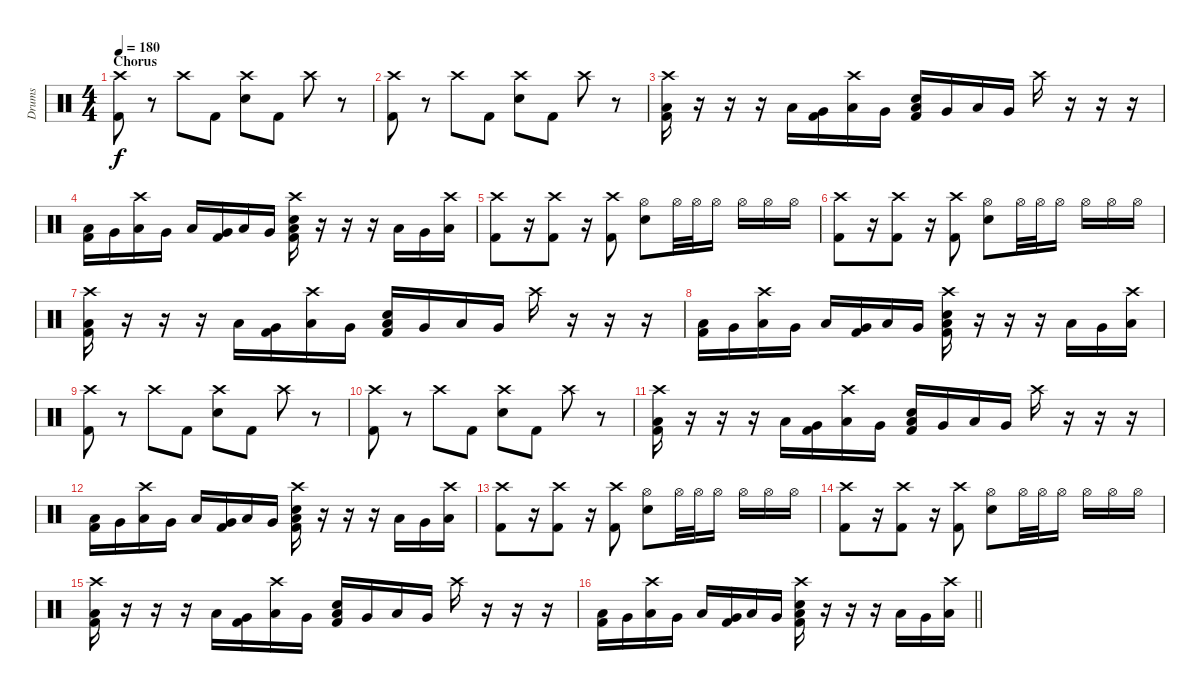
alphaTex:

\track ("Drums" "Drums") {instrument percussion}
\staff {score}
\articulation defaults
\ts (4 4)
\section ("" "Chorus")
\tempo 180
\clef neutral
\ks c
("Crash high (hit)" "Kick (hit) 2").8{dy f} r.8 "Crash high (hit)".8 "Kick (hit) 2".8 ("Crash high (hit)" "Electric Snare (hit)").8 "Kick (hit) 2".8 "Crash high (hit)".8 r.8 |
("Crash high (hit)" "Kick (hit) 2").8 r.8 "Crash high (hit)".8 "Kick (hit) 2".8 ("Crash high (hit)" "Electric Snare (hit)").8 "Kick (hit) 2".8 "Crash high (hit)".8 r.8 |
("Crash high (hit)" "Low Floor Tom (hit)" "Kick (hit) 2").16 r.16 r.16 r.16 "Low Floor Tom (hit)".16 ("Very Low Tom (hit)" "Kick (hit) 2").16 ("Crash high (hit)" "Low Floor Tom (hit)").16 "Very Low Tom (hit)".16 ("Electric Snare (hit)" "Low Floor Tom (hit)" "Kick (hit) 2").16 "Very Low Tom (hit)".16 "Low Floor Tom (hit)".16 "Very Low Tom (hit)".16 "Crash high (hit)".16 r.16 r.16 r.16 |
("Low Floor Tom (hit)" "Kick (hit) 2").16 "Very Low Tom (hit)".16 ("Crash high (hit)" "Low Floor Tom (hit)").16 "Very Low Tom (hit)".16 "Low Floor Tom (hit)".16 ("Very Low Tom (hit)" "Kick (hit) 2").16 "Low Floor Tom (hit)".16 "Very Low Tom (hit)".16 ("Crash high (hit)" "Electric Snare (hit)" "Low Floor Tom (hit)" "Kick (hit) 2").16 r.16 r.16 r.16 "Low Floor Tom (hit)".16 "Very Low Tom (hit)".16 ("Crash high (hit)" "Low Floor Tom (hit)").16 |
("Crash high (hit)" "Kick (hit) 2").8 r.16 ("Crash high (hit)" "Kick (hit) 2").8 r.16 ("Crash high (hit)" "Kick (hit) 2").8 ("Hi-Hat (open)" "Electric Snare (hit)").8 "Hi-Hat (open)".32 "Hi-Hat (open)".32 "Hi-Hat (open)".16 "Hi-Hat (open)".16 "Hi-Hat (open)".16 "Hi-Hat (open)".16 |
("Crash high (hit)" "Kick (hit) 2").8 r.16 ("Crash high (hit)" "Kick (hit) 2").8 r.16 ("Crash high (hit)" "Kick (hit) 2").8 ("Hi-Hat (open)" "Electric Snare (hit)").8 "Hi-Hat (open)".32 "Hi-Hat (open)".32 "Hi-Hat (open)".16 "Hi-Hat (open)".16 "Hi-Hat (open)".16 "Hi-Hat (open)".16 |
("Crash high (hit)" "Low Floor Tom (hit)" "Kick (hit) 2").16 r.16 r.16 r.16 "Low Floor Tom (hit)".16 ("Very Low Tom (hit)" "Kick (hit) 2").16 ("Crash high (hit)" "Low Floor Tom (hit)").16 "Very Low Tom (hit)".16 ("Electric Snare (hit)" "Low Floor Tom (hit)" "Kick (hit) 2").16 "Very Low Tom (hit)".16 "Low Floor Tom (hit)".16 "Very Low Tom (hit)".16 "Crash high (hit)".16 r.16 r.16 r.16 |
("Low Floor Tom (hit)" "Kick (hit) 2").16 "Very Low Tom (hit)".16 ("Crash high (hit)" "Low Floor Tom (hit)").16 "Very Low Tom (hit)".16 "Low Floor Tom (hit)".16 ("Very Low Tom (hit)" "Kick (hit) 2").16 "Low Floor Tom (hit)".16 "Very Low Tom (hit)".16 ("Crash high (hit)" "Electric Snare (hit)" "Low Floor Tom (hit)" "Kick (hit) 2").16 r.16 r.16 r.16 "Low Floor Tom (hit)".16 "Very Low Tom (hit)".16 ("Crash high (hit)" "Low Floor Tom (hit)").16 |
("Crash high (hit)" "Kick (hit) 2").8 r.8 "Crash high (hit)".8 "Kick (hit) 2".8 ("Crash high (hit)" "Electric Snare (hit)").8 "Kick (hit) 2".8 "Crash high (hit)".8 r.8 |
("Crash high (hit)" "Kick (hit) 2").8 r.8 "Crash high (hit)".8 "Kick (hit) 2".8 ("Crash high (hit)" "Electric Snare (hit)").8 "Kick (hit) 2".8 "Crash high (hit)".8 r.8 |
("Crash high (hit)" "Low Floor Tom (hit)" "Kick (hit) 2").16 r.16 r.16 r.16 "Low Floor Tom (hit)".16 ("Very Low Tom (hit)" "Kick (hit) 2").16 ("Crash high (hit)" "Low Floor Tom (hit)").16 "Very Low Tom (hit)".16 ("Electric Snare (hit)" "Low Floor Tom (hit)" "Kick (hit) 2").16 "Very Low Tom (hit)".16 "Low Floor Tom (hit)".16 "Very Low Tom (hit)".16 "Crash high (hit)".16 r.16 r.16 r.16 |
("Low Floor Tom (hit)" "Kick (hit) 2").16 "Very Low Tom (hit)".16 ("Crash high (hit)" "Low Floor Tom (hit)").16 "Very Low Tom (hit)".16 "Low Floor Tom (hit)".16 ("Very Low Tom (hit)" "Kick (hit) 2").16 "Low Floor Tom (hit)".16 "Very Low Tom (hit)".16 ("Crash high (hit)" "Electric Snare (hit)" "Low Floor Tom (hit)" "Kick (hit) 2").16 r.16 r.16 r.16 "Low Floor Tom (hit)".16 "Very Low Tom (hit)".16 ("Crash high (hit)" "Low Floor Tom (hit)").16 |
("Crash high (hit)" "Kick (hit) 2").8 r.16 ("Crash high (hit)" "Kick (hit) 2").8 r.16 ("Crash high (hit)" "Kick (hit) 2").8 ("Hi-Hat (open)" "Electric Snare (hit)").8 "Hi-Hat (open)".32 "Hi-Hat (open)".32 "Hi-Hat (open)".16 "Hi-Hat (open)".16 "Hi-Hat (open)".16 "Hi-Hat (open)".16 |
("Crash high (hit)" "Kick (hit) 2").8 r.16 ("Crash high (hit)" "Kick (hit) 2").8 r.16 ("Crash high (hit)" "Kick (hit) 2").8 ("Hi-Hat (open)" "Electric Snare (hit)").8 "Hi-Hat (open)".32 "Hi-Hat (open)".32 "Hi-Hat (open)".16 "Hi-Hat (open)".16 "Hi-Hat (open)".16 "Hi-Hat (open)".16 |
("Crash high (hit)" "Low Floor Tom (hit)" "Kick (hit) 2").16 r.16 r.16 r.16 "Low Floor Tom (hit)".16 ("Very Low Tom (hit)" "Kick (hit) 2").16 ("Crash high (hit)" "Low Floor Tom (hit)").16 "Very Low Tom (hit)".16 ("Electric Snare (hit)" "Low Floor Tom (hit)" "Kick (hit) 2").16 "Very Low Tom (hit)".16 "Low Floor Tom (hit)".16 "Very Low Tom (hit)".16 "Crash high (hit)".16 r.16 r.16 r.16 |
\barLineRight lightlight
("Low Floor Tom (hit)" "Kick (hit) 2").16 "Very Low Tom (hit)".16 ("Crash high (hit)" "Low Floor Tom (hit)").16 "Very Low Tom (hit)".16 "Low Floor Tom (hit)".16 ("Very Low Tom (hit)" "Kick (hit) 2").16 "Low Floor Tom (hit)".16 "Very Low Tom (hit)".16 ("Crash high (hit)" "Electric Snare (hit)" "Low Floor Tom (hit)" "Kick (hit) 2").16 r.16 r.16 r.16 "Low Floor Tom (hit)".16 "Very Low Tom (hit)".16 ("Crash high (hit)" "Low Floor Tom (hit)").16
